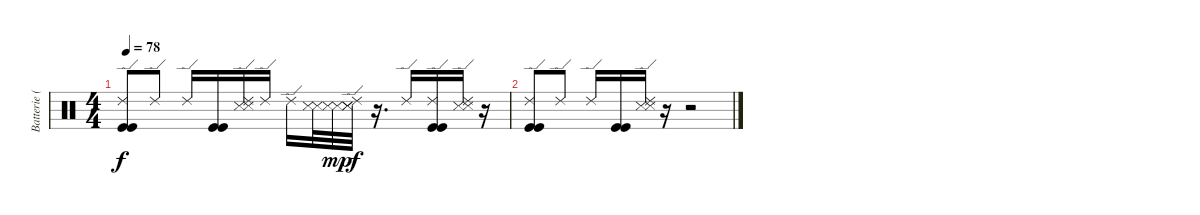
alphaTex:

\track ("Batterie ( Raphaël )" "Batterie (") {instrument percussion}
\staff {score}
\articulation defaults
\ts (4 4)
\tempo 78
\clef neutral
\ks c
("Ride (edge) 2" "Kick (hit)" "Kick (hit)").8{dy f} "Ride (edge) 2".8 "Ride (edge) 2".16 ("Kick (hit)" "Kick (hit)").16 ("Ride (edge) 2" "Snare (side stick) 3" "Snare (side stick) 3").16 "Ride (edge) 2".16 "Ride (edge) 2".16 ("Snare (side stick) 3" "Snare (side stick) 3").32 ("Snare (side stick) 3" "Snare (side stick) 3").32{dy mp} ("Ride (edge) 2" "Snare (side stick) 3" "Snare (side stick) 3").32{dy f} r.16{d} "Ride (edge) 2".16 ("Ride (edge) 2" "Kick (hit)" "Kick (hit)").16 ("Ride (edge) 2" "Snare (side stick) 3" "Snare (side stick) 3").16 r.16 |
("Ride (edge) 2" "Kick (hit)" "Kick (hit)").8 "Ride (edge) 2".8 "Ride (edge) 2".16 ("Kick (hit)" "Kick (hit)").16 ("Ride (edge) 2" "Snare (side stick) 3" "Snare (side stick) 3").16 r.16 r.2
